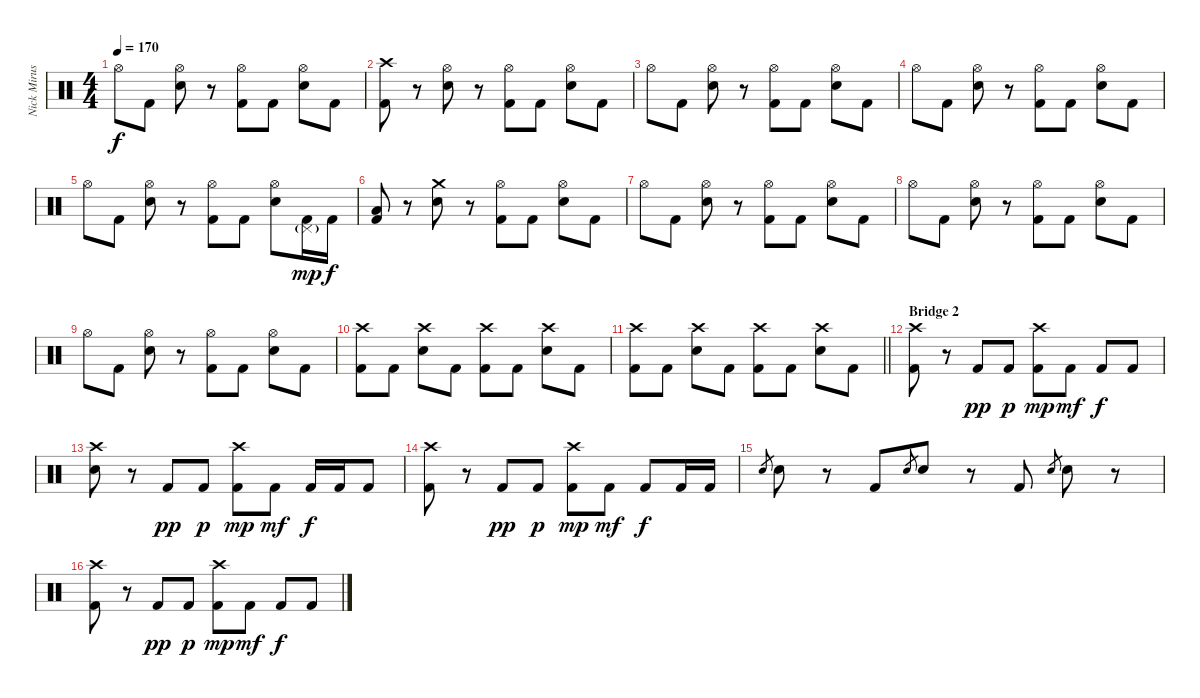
\track ("Nick Mirusso - Drums" "Nick Mirus") {instrument percussion}
\staff {score}
\articulation defaults
\ts (4 4)
\tempo 170
\clef neutral
\ks c "Hi-Hat (open)".8{dy f} "Kick (hit) 2".8
("Hi-Hat (open)" "Electric Snare (hit)").8 r.8 ("Hi-Hat (open)" "Kick (hit) 2").8 "Kick (hit) 2".8 ("Hi-Hat (open)" "Electric Snare (hit)").8 "Kick (hit) 2".8 |
("Crash high (hit)" "Kick (hit) 2").8 r.8 ("Hi-Hat (open)" "Electric Snare (hit)").8 r.8 ("Hi-Hat (open)" "Kick (hit) 2").8 "Kick (hit) 2".8 ("Hi-Hat (open)" "Electric Snare (hit)").8 "Kick (hit) 2".8 |
"Hi-Hat (open)".8 "Kick (hit) 2".8 ("Hi-Hat (open)" "Electric Snare (hit)").8 r.8 ("Hi-Hat (open)" "Kick (hit) 2").8 "Kick (hit) 2".8 ("Hi-Hat (open)" "Electric Snare (hit)").8 "Kick (hit) 2".8 |
"Hi-Hat (open)".8 "Kick (hit) 2".8 ("Hi-Hat (open)" "Electric Snare (hit)").8 r.8 ("Hi-Hat (open)" "Kick (hit) 2").8 "Kick (hit) 2".8 ("Hi-Hat (open)" "Electric Snare (hit)").8 "Kick (hit) 2".8 |
"Hi-Hat (open)".8 "Kick (hit) 2".8 ("Hi-Hat (open)" "Electric Snare (hit)").8 r.8 ("Hi-Hat (open)" "Kick (hit) 2").8 "Kick (hit) 2".8 ("Hi-Hat (open)" "Electric Snare (hit)").8 ("Pedal Hi-Hat (hit)"{g} "Kick (hit) 2").16{dy mp} "Kick (hit) 2".16{dy f} |
("Low Floor Tom (hit)" "Kick (hit) 2").8 r.8 ("Crash medium (hit)" "Electric Snare (hit)").8 r.8 ("Hi-Hat (open)" "Kick (hit) 2").8 "Kick (hit) 2".8 ("Hi-Hat (open)" "Electric Snare (hit)").8 "Kick (hit) 2".8 |
"Hi-Hat (open)".8 "Kick (hit) 2".8 ("Hi-Hat (open)" "Electric Snare (hit)").8 r.8 ("Hi-Hat (open)" "Kick (hit) 2").8 "Kick (hit) 2".8 ("Hi-Hat (open)" "Electric Snare (hit)").8 "Kick (hit) 2".8 |
"Hi-Hat (open)".8 "Kick (hit) 2".8 ("Hi-Hat (open)" "Electric Snare (hit)").8 r.8 ("Hi-Hat (open)" "Kick (hit) 2").8 "Kick (hit) 2".8 ("Hi-Hat (open)" "Electric Snare (hit)").8 "Kick (hit) 2".8 |
"Hi-Hat (open)".8 "Kick (hit) 2".8 ("Hi-Hat (open)" "Electric Snare (hit)").8 r.8 ("Hi-Hat (open)" "Kick (hit) 2").8 "Kick (hit) 2".8 ("Hi-Hat (open)" "Electric Snare (hit)").8 "Kick (hit) 2".8 |
("Crash high (hit)" "Kick (hit) 2").8 "Kick (hit) 2".8 ("Crash high (hit)" "Electric Snare (hit)").8 "Kick (hit) 2".8 ("Crash high (hit)" "Kick (hit) 2").8 "Kick (hit) 2".8 ("Crash high (hit)" "Electric Snare (hit)").8 "Kick (hit) 2".8 |
\barLineRight lightlight
("Crash high (hit)" "Kick (hit) 2").8 "Kick (hit) 2".8 ("Crash high (hit)" "Electric Snare (hit)").8 "Kick (hit) 2".8 ("Crash high (hit)" "Kick (hit) 2").8 "Kick (hit) 2".8 ("Crash high (hit)" "Electric Snare (hit)").8 "Kick (hit) 2".8 |
\section ("" "Bridge 2")
("Crash high (hit)" "Kick (hit) 2").8 r.8 "Kick (hit) 2".8{dy pp} "Kick (hit) 2".8{dy p} ("Crash high (hit)" "Kick (hit) 2").8{dy mp} "Kick (hit) 2".8{dy mf} "Kick (hit) 2".8{dy f} "Kick (hit) 2".8 |
("Crash high (hit)" "Electric Snare (hit)").8 r.8 "Kick (hit) 2".8{dy pp} "Kick (hit) 2".8{dy p} ("Crash high (hit)" "Kick (hit) 2").8{dy mp} "Kick (hit) 2".8{dy mf} "Kick (hit) 2".16{dy f} "Kick (hit) 2".16 "Kick (hit) 2".8 |
("Crash high (hit)" "Kick (hit) 2").8 r.8 "Kick (hit) 2".8{dy pp} "Kick (hit) 2".8{dy p} ("Crash high (hit)" "Kick (hit) 2").8{dy mp} "Kick (hit) 2".8{dy mf} "Kick (hit) 2".8{dy f} "Kick (hit) 2".16 "Kick (hit) 2".16 |
"Electric Snare (hit)".8{gr} "Electric Snare (hit)".8 r.8 "Kick (hit) 2".8 "Electric Snare (hit)".8{gr} "Electric Snare (hit)".8 r.8 "Kick (hit) 2".8 "Electric Snare (hit)".8{gr} "Electric Snare (hit)".8 r.8 |
("Crash high (hit)" "Kick (hit) 2").8 r.8 "Kick (hit) 2".8{dy pp} "Kick (hit) 2".8{dy p} ("Crash high (hit)" "Kick (hit) 2").8{dy mp} "Kick (hit) 2".8{dy mf} "Kick (hit) 2".8{dy f} "Kick (hit) 2".8
